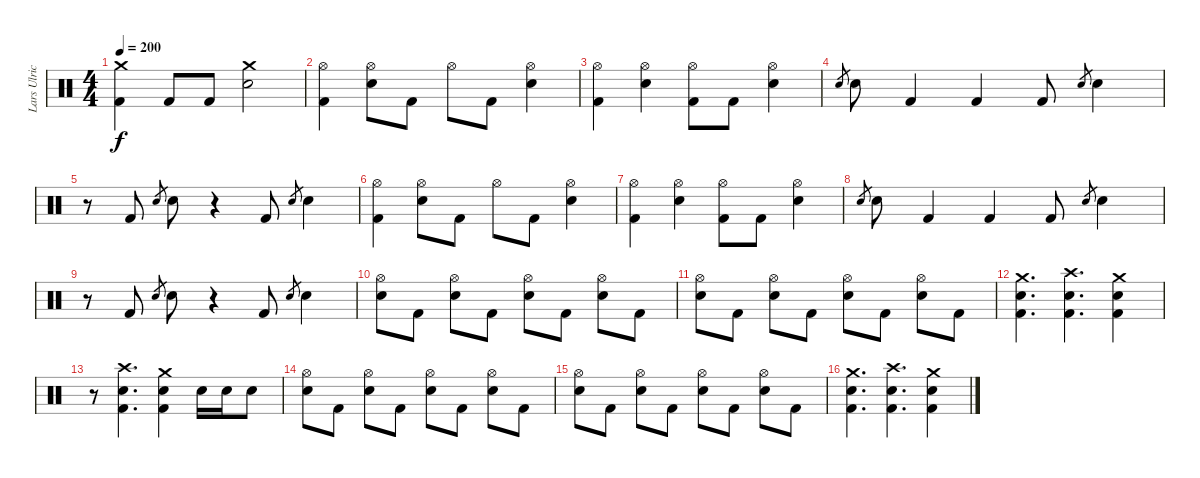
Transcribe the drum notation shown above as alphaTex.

\track ("Lars Ulrich" "Lars Ulric") {instrument percussion}
\staff {score}
\articulation defaults
\ts (4 4)
\tempo 200
\clef neutral
\ks c
("Crash medium (hit)" "Kick (hit) 2").4{dy f} "Kick (hit) 2".8 "Kick (hit) 2".8 ("Crash medium (hit)" "Electric Snare (hit)").2 |
("Hi-Hat (open)" "Kick (hit) 2").4 ("Hi-Hat (open)" "Electric Snare (hit)").8 "Kick (hit) 2".8 "Hi-Hat (open)".8 "Kick (hit) 2".8 ("Hi-Hat (open)" "Electric Snare (hit)").4 |
("Hi-Hat (open)" "Kick (hit) 2").4 ("Hi-Hat (open)" "Electric Snare (hit)").4 ("Hi-Hat (open)" "Kick (hit) 2").8 "Kick (hit) 2".8 ("Hi-Hat (open)" "Electric Snare (hit)").4 |
"Electric Snare (hit)".8{gr} "Electric Snare (hit)".8 "Kick (hit) 2".4 "Kick (hit) 2".4 "Kick (hit) 2".8 "Electric Snare (hit)".8{gr} "Electric Snare (hit)".4 |
r.8 "Kick (hit) 2".8 "Electric Snare (hit)".8{gr} "Electric Snare (hit)".8 r.4 "Kick (hit) 2".8 "Electric Snare (hit)".8{gr} "Electric Snare (hit)".4 |
("Hi-Hat (open)" "Kick (hit) 2").4 ("Hi-Hat (open)" "Electric Snare (hit)").8 "Kick (hit) 2".8 "Hi-Hat (open)".8 "Kick (hit) 2".8 ("Hi-Hat (open)" "Electric Snare (hit)").4 |
("Hi-Hat (open)" "Kick (hit) 2").4 ("Hi-Hat (open)" "Electric Snare (hit)").4 ("Hi-Hat (open)" "Kick (hit) 2").8 "Kick (hit) 2".8 ("Hi-Hat (open)" "Electric Snare (hit)").4 |
"Electric Snare (hit)".8{gr} "Electric Snare (hit)".8 "Kick (hit) 2".4 "Kick (hit) 2".4 "Kick (hit) 2".8 "Electric Snare (hit)".8{gr} "Electric Snare (hit)".4 |
r.8 "Kick (hit) 2".8 "Electric Snare (hit)".8{gr} "Electric Snare (hit)".8 r.4 "Kick (hit) 2".8 "Electric Snare (hit)".8{gr} "Electric Snare (hit)".4 |
("Hi-Hat (open)" "Electric Snare (hit)").8 "Kick (hit) 2".8 ("Hi-Hat (open)" "Electric Snare (hit)").8 "Kick (hit) 2".8 ("Hi-Hat (open)" "Electric Snare (hit)").8 "Kick (hit) 2".8 ("Hi-Hat (open)" "Electric Snare (hit)").8 "Kick (hit) 2".8 |
("Hi-Hat (open)" "Electric Snare (hit)").8 "Kick (hit) 2".8 ("Hi-Hat (open)" "Electric Snare (hit)").8 "Kick (hit) 2".8 ("Hi-Hat (open)" "Electric Snare (hit)").8 "Kick (hit) 2".8 ("Hi-Hat (open)" "Electric Snare (hit)").8 "Kick (hit) 2".8 |
("Crash medium (hit)" "Electric Snare (hit)" "Kick (hit) 2").4{d} ("Crash high (hit)" "Electric Snare (hit)" "Kick (hit) 2").4{d} ("Crash medium (hit)" "Electric Snare (hit)" "Kick (hit) 2").4 |
r.8 ("Crash high (hit)" "Electric Snare (hit)" "Kick (hit) 2").4{d} ("Crash medium (hit)" "Electric Snare (hit)" "Kick (hit) 2").4 "Electric Snare (hit)".16 "Electric Snare (hit)".16 "Electric Snare (hit)".8 |
("Hi-Hat (open)" "Electric Snare (hit)").8 "Kick (hit) 2".8 ("Hi-Hat (open)" "Electric Snare (hit)").8 "Kick (hit) 2".8 ("Hi-Hat (open)" "Electric Snare (hit)").8 "Kick (hit) 2".8 ("Hi-Hat (open)" "Electric Snare (hit)").8 "Kick (hit) 2".8 |
("Hi-Hat (open)" "Electric Snare (hit)").8 "Kick (hit) 2".8 ("Hi-Hat (open)" "Electric Snare (hit)").8 "Kick (hit) 2".8 ("Hi-Hat (open)" "Electric Snare (hit)").8 "Kick (hit) 2".8 ("Hi-Hat (open)" "Electric Snare (hit)").8 "Kick (hit) 2".8 |
("Crash medium (hit)" "Electric Snare (hit)" "Kick (hit) 2").4{d} ("Crash high (hit)" "Electric Snare (hit)" "Kick (hit) 2").4{d} ("Crash medium (hit)" "Electric Snare (hit)" "Kick (hit) 2").4
